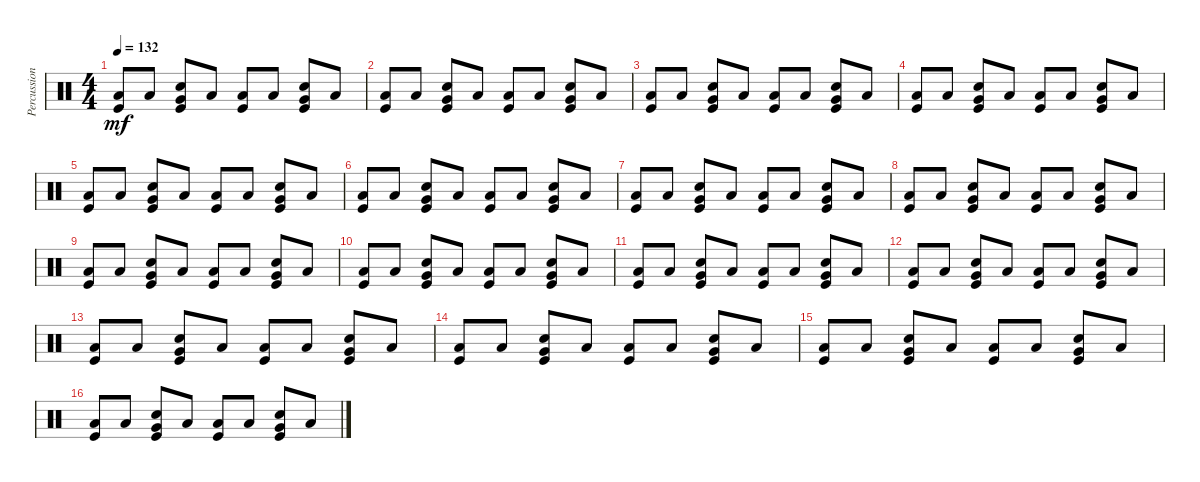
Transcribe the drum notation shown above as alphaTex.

\track ("Percussions" "Percussion") {instrument percussion}
\staff {score}
\articulation defaults
\ts (4 4)
\tempo 132
\clef neutral
\ks c
("Low Floor Tom (hit)" "Kick (hit)").8{dy mf} "Low Floor Tom (hit)".8 ("Very Low Tom (hit)" "Snare (hit) 2" "Kick (hit)").8 "Low Floor Tom (hit)".8 ("Low Floor Tom (hit)" "Kick (hit)").8 "Low Floor Tom (hit)".8 ("Very Low Tom (hit)" "Snare (hit) 2" "Kick (hit)").8 "Low Floor Tom (hit)".8 |
("Low Floor Tom (hit)" "Kick (hit)").8 "Low Floor Tom (hit)".8 ("Very Low Tom (hit)" "Snare (hit) 2" "Kick (hit)").8 "Low Floor Tom (hit)".8 ("Low Floor Tom (hit)" "Kick (hit)").8 "Low Floor Tom (hit)".8 ("Very Low Tom (hit)" "Snare (hit) 2" "Kick (hit)").8 "Low Floor Tom (hit)".8 |
("Low Floor Tom (hit)" "Kick (hit)").8 "Low Floor Tom (hit)".8 ("Very Low Tom (hit)" "Snare (hit) 2" "Kick (hit)").8 "Low Floor Tom (hit)".8 ("Low Floor Tom (hit)" "Kick (hit)").8 "Low Floor Tom (hit)".8 ("Very Low Tom (hit)" "Snare (hit) 2" "Kick (hit)").8 "Low Floor Tom (hit)".8 |
("Low Floor Tom (hit)" "Kick (hit)").8 "Low Floor Tom (hit)".8 ("Very Low Tom (hit)" "Snare (hit) 2" "Kick (hit)").8 "Low Floor Tom (hit)".8 ("Low Floor Tom (hit)" "Kick (hit)").8 "Low Floor Tom (hit)".8 ("Very Low Tom (hit)" "Snare (hit) 2" "Kick (hit)").8 "Low Floor Tom (hit)".8 |
("Low Floor Tom (hit)" "Kick (hit)").8 "Low Floor Tom (hit)".8 ("Very Low Tom (hit)" "Snare (hit) 2" "Kick (hit)").8 "Low Floor Tom (hit)".8 ("Low Floor Tom (hit)" "Kick (hit)").8 "Low Floor Tom (hit)".8 ("Very Low Tom (hit)" "Snare (hit) 2" "Kick (hit)").8 "Low Floor Tom (hit)".8 |
("Low Floor Tom (hit)" "Kick (hit)").8 "Low Floor Tom (hit)".8 ("Very Low Tom (hit)" "Snare (hit) 2" "Kick (hit)").8 "Low Floor Tom (hit)".8 ("Low Floor Tom (hit)" "Kick (hit)").8 "Low Floor Tom (hit)".8 ("Very Low Tom (hit)" "Snare (hit) 2" "Kick (hit)").8 "Low Floor Tom (hit)".8 |
("Low Floor Tom (hit)" "Kick (hit)").8 "Low Floor Tom (hit)".8 ("Very Low Tom (hit)" "Snare (hit) 2" "Kick (hit)").8 "Low Floor Tom (hit)".8 ("Low Floor Tom (hit)" "Kick (hit)").8 "Low Floor Tom (hit)".8 ("Very Low Tom (hit)" "Snare (hit) 2" "Kick (hit)").8 "Low Floor Tom (hit)".8 |
("Low Floor Tom (hit)" "Kick (hit)").8 "Low Floor Tom (hit)".8 ("Very Low Tom (hit)" "Snare (hit) 2" "Kick (hit)").8 "Low Floor Tom (hit)".8 ("Low Floor Tom (hit)" "Kick (hit)").8 "Low Floor Tom (hit)".8 ("Very Low Tom (hit)" "Snare (hit) 2" "Kick (hit)").8 "Low Floor Tom (hit)".8 |
("Low Floor Tom (hit)" "Kick (hit)").8 "Low Floor Tom (hit)".8 ("Very Low Tom (hit)" "Snare (hit) 2" "Kick (hit)").8 "Low Floor Tom (hit)".8 ("Low Floor Tom (hit)" "Kick (hit)").8 "Low Floor Tom (hit)".8 ("Very Low Tom (hit)" "Snare (hit) 2" "Kick (hit)").8 "Low Floor Tom (hit)".8 |
("Low Floor Tom (hit)" "Kick (hit)").8 "Low Floor Tom (hit)".8 ("Very Low Tom (hit)" "Snare (hit) 2" "Kick (hit)").8 "Low Floor Tom (hit)".8 ("Low Floor Tom (hit)" "Kick (hit)").8 "Low Floor Tom (hit)".8 ("Very Low Tom (hit)" "Snare (hit) 2" "Kick (hit)").8 "Low Floor Tom (hit)".8 |
("Low Floor Tom (hit)" "Kick (hit)").8 "Low Floor Tom (hit)".8 ("Very Low Tom (hit)" "Snare (hit) 2" "Kick (hit)").8 "Low Floor Tom (hit)".8 ("Low Floor Tom (hit)" "Kick (hit)").8 "Low Floor Tom (hit)".8 ("Very Low Tom (hit)" "Snare (hit) 2" "Kick (hit)").8 "Low Floor Tom (hit)".8 |
("Low Floor Tom (hit)" "Kick (hit)").8 "Low Floor Tom (hit)".8 ("Very Low Tom (hit)" "Snare (hit) 2" "Kick (hit)").8 "Low Floor Tom (hit)".8 ("Low Floor Tom (hit)" "Kick (hit)").8 "Low Floor Tom (hit)".8 ("Very Low Tom (hit)" "Snare (hit) 2" "Kick (hit)").8 "Low Floor Tom (hit)".8 |
("Low Floor Tom (hit)" "Kick (hit)").8 "Low Floor Tom (hit)".8 ("Very Low Tom (hit)" "Snare (hit) 2" "Kick (hit)").8 "Low Floor Tom (hit)".8 ("Low Floor Tom (hit)" "Kick (hit)").8 "Low Floor Tom (hit)".8 ("Very Low Tom (hit)" "Snare (hit) 2" "Kick (hit)").8 "Low Floor Tom (hit)".8 |
("Low Floor Tom (hit)" "Kick (hit)").8 "Low Floor Tom (hit)".8 ("Very Low Tom (hit)" "Snare (hit) 2" "Kick (hit)").8 "Low Floor Tom (hit)".8 ("Low Floor Tom (hit)" "Kick (hit)").8 "Low Floor Tom (hit)".8 ("Very Low Tom (hit)" "Snare (hit) 2" "Kick (hit)").8 "Low Floor Tom (hit)".8 |
("Low Floor Tom (hit)" "Kick (hit)").8 "Low Floor Tom (hit)".8 ("Very Low Tom (hit)" "Snare (hit) 2" "Kick (hit)").8 "Low Floor Tom (hit)".8 ("Low Floor Tom (hit)" "Kick (hit)").8 "Low Floor Tom (hit)".8 ("Very Low Tom (hit)" "Snare (hit) 2" "Kick (hit)").8 "Low Floor Tom (hit)".8 |
("Low Floor Tom (hit)" "Kick (hit)").8 "Low Floor Tom (hit)".8 ("Very Low Tom (hit)" "Snare (hit) 2" "Kick (hit)").8 "Low Floor Tom (hit)".8 ("Low Floor Tom (hit)" "Kick (hit)").8 "Low Floor Tom (hit)".8 ("Very Low Tom (hit)" "Snare (hit) 2" "Kick (hit)").8 "Low Floor Tom (hit)".8
